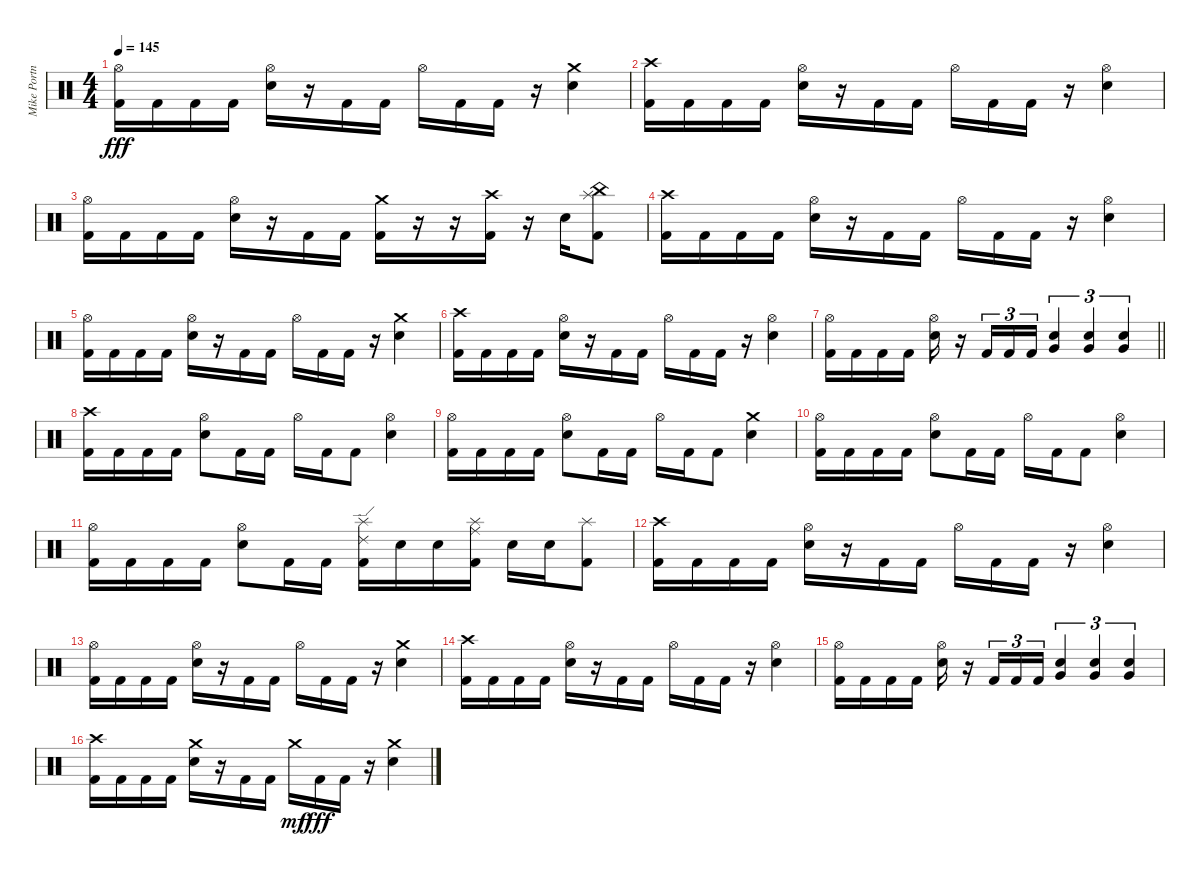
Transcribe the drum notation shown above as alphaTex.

\track ("Mike Portnoy" "Mike Portn") {instrument percussion}
\staff {score}
\articulation defaults
\ts (4 4)
\tempo 145
\clef neutral
\ks c
("Hi-Hat (open)" "Kick (hit) 2").16{dy fff} "Kick (hit) 2".16 "Kick (hit) 2".16 "Kick (hit) 2".16 ("Hi-Hat (open)" "Electric Snare (hit)").16 r.16 "Kick (hit) 2".16 "Kick (hit) 2".16 "Hi-Hat (open)".16 "Kick (hit) 2".16 "Kick (hit) 2".16 r.16 ("Crash medium (hit)" "Electric Snare (hit)").4 |
("Crash high (hit)" "Kick (hit) 2").16 "Kick (hit) 2".16 "Kick (hit) 2".16 "Kick (hit) 2".16 ("Hi-Hat (open)" "Electric Snare (hit)").16 r.16 "Kick (hit) 2".16 "Kick (hit) 2".16 "Hi-Hat (open)".16 "Kick (hit) 2".16 "Kick (hit) 2".16 r.16 ("Hi-Hat (open)" "Electric Snare (hit)").4 |
("Hi-Hat (open)" "Kick (hit) 2").16 "Kick (hit) 2".16 "Kick (hit) 2".16 "Kick (hit) 2".16 ("Hi-Hat (open)" "Electric Snare (hit)").16 r.16 "Kick (hit) 2".16 "Kick (hit) 2".16 ("Crash medium (hit)" "Kick (hit) 2").16 r.16 r.16 ("Crash high (hit)" "Kick (hit) 2").16 r.16 "Electric Snare (hit)".16 ("China (hit)" "Splash (hit)" "Kick (hit) 2").8 |
("Crash high (hit)" "Kick (hit) 2").16 "Kick (hit) 2".16 "Kick (hit) 2".16 "Kick (hit) 2".16 ("Hi-Hat (open)" "Electric Snare (hit)").16 r.16 "Kick (hit) 2".16 "Kick (hit) 2".16 "Hi-Hat (open)".16 "Kick (hit) 2".16 "Kick (hit) 2".16 r.16 ("Hi-Hat (open)" "Electric Snare (hit)").4 |
("Hi-Hat (open)" "Kick (hit) 2").16 "Kick (hit) 2".16 "Kick (hit) 2".16 "Kick (hit) 2".16 ("Hi-Hat (open)" "Electric Snare (hit)").16 r.16 "Kick (hit) 2".16 "Kick (hit) 2".16 "Hi-Hat (open)".16 "Kick (hit) 2".16 "Kick (hit) 2".16 r.16 ("Crash medium (hit)" "Electric Snare (hit)").4 |
("Crash high (hit)" "Kick (hit) 2").16 "Kick (hit) 2".16 "Kick (hit) 2".16 "Kick (hit) 2".16 ("Hi-Hat (open)" "Electric Snare (hit)").16 r.16 "Kick (hit) 2".16 "Kick (hit) 2".16 "Hi-Hat (open)".16 "Kick (hit) 2".16 "Kick (hit) 2".16 r.16 ("Hi-Hat (open)" "Electric Snare (hit)").4 |
\barLineRight lightlight
("Hi-Hat (open)" "Kick (hit) 2").16 "Kick (hit) 2".16 "Kick (hit) 2".16 "Kick (hit) 2".16 ("Hi-Hat (open)" "Electric Snare (hit)").16 r.16 "Kick (hit) 2".16{tu (3 2)} "Kick (hit) 2".16{tu (3 2)} "Kick (hit) 2".16{tu (3 2)} ("Very Low Tom (hit)" "Electric Snare (hit)").4{tu (3 2) bd 480} ("Very Low Tom (hit)" "Electric Snare (hit)").4{tu (3 2) bd 480} ("Very Low Tom (hit)" "Electric Snare (hit)").4{tu (3 2) bd 480} |
("Crash high (hit)" "Kick (hit) 2").16 "Kick (hit) 2".16 "Kick (hit) 2".16 "Kick (hit) 2".16 ("Hi-Hat (open)" "Electric Snare (hit)").8 "Kick (hit) 2".16 "Kick (hit) 2".16 "Hi-Hat (open)".16 "Kick (hit) 2".16 "Kick (hit) 2".8 ("Hi-Hat (open)" "Electric Snare (hit)").4 |
("Hi-Hat (open)" "Kick (hit) 2").16 "Kick (hit) 2".16 "Kick (hit) 2".16 "Kick (hit) 2".16 ("Hi-Hat (open)" "Electric Snare (hit)").8 "Kick (hit) 2".16 "Kick (hit) 2".16 "Hi-Hat (open)".16 "Kick (hit) 2".16 "Kick (hit) 2".8 ("Crash medium (hit)" "Electric Snare (hit)").4 |
("Hi-Hat (open)" "Kick (hit) 2").16 "Kick (hit) 2".16 "Kick (hit) 2".16 "Kick (hit) 2".16 ("Hi-Hat (open)" "Electric Snare (hit)").8 "Kick (hit) 2".16 "Kick (hit) 2".16 "Hi-Hat (open)".16 "Kick (hit) 2".16 "Kick (hit) 2".8 ("Hi-Hat (open)" "Electric Snare (hit)").4 |
("Hi-Hat (open)" "Kick (hit) 2").16 "Kick (hit) 2".16 "Kick (hit) 2".16 "Kick (hit) 2".16 ("Hi-Hat (open)" "Electric Snare (hit)").8 "Kick (hit) 2".16 "Kick (hit) 2".16 ("Splash (hit)" "Ride (edge) 2" "Kick (hit) 2").16 "Electric Snare (hit)".16 "Electric Snare (hit)".16 ("Splash (hit)" "Ride (middle)" "Kick (hit) 2").16 "Electric Snare (hit)".16 "Electric Snare (hit)".16 ("Splash (hit)" "Kick (hit) 2").8 |
("Crash high (hit)" "Kick (hit) 2").16 "Kick (hit) 2".16 "Kick (hit) 2".16 "Kick (hit) 2".16 ("Hi-Hat (open)" "Electric Snare (hit)").16 r.16 "Kick (hit) 2".16 "Kick (hit) 2".16 "Hi-Hat (open)".16 "Kick (hit) 2".16 "Kick (hit) 2".16 r.16 ("Hi-Hat (open)" "Electric Snare (hit)").4 |
("Hi-Hat (open)" "Kick (hit) 2").16 "Kick (hit) 2".16 "Kick (hit) 2".16 "Kick (hit) 2".16 ("Hi-Hat (open)" "Electric Snare (hit)").16 r.16 "Kick (hit) 2".16 "Kick (hit) 2".16 "Hi-Hat (open)".16 "Kick (hit) 2".16 "Kick (hit) 2".16 r.16 ("Crash medium (hit)" "Electric Snare (hit)").4 |
("Crash high (hit)" "Kick (hit) 2").16 "Kick (hit) 2".16 "Kick (hit) 2".16 "Kick (hit) 2".16 ("Hi-Hat (open)" "Electric Snare (hit)").16 r.16 "Kick (hit) 2".16 "Kick (hit) 2".16 "Hi-Hat (open)".16 "Kick (hit) 2".16 "Kick (hit) 2".16 r.16 ("Hi-Hat (open)" "Electric Snare (hit)").4 |
("Hi-Hat (open)" "Kick (hit) 2").16 "Kick (hit) 2".16 "Kick (hit) 2".16 "Kick (hit) 2".16 ("Hi-Hat (open)" "Electric Snare (hit)").16 r.16 "Kick (hit) 2".16{tu (3 2)} "Kick (hit) 2".16{tu (3 2)} "Kick (hit) 2".16{tu (3 2)} ("Very Low Tom (hit)" "Electric Snare (hit)").4{tu (3 2) bd 480} ("Very Low Tom (hit)" "Electric Snare (hit)").4{tu (3 2) bd 480} ("Very Low Tom (hit)" "Electric Snare (hit)").4{tu (3 2) bd 480} |
("Crash high (hit)" "Kick (hit) 2").16 "Kick (hit) 2".16 "Kick (hit) 2".16 "Kick (hit) 2".16 ("Crash medium (hit)" "Electric Snare (hit)").16 r.16 "Kick (hit) 2".16 "Kick (hit) 2".16 "Crash medium (hit)".16{dy mf} "Kick (hit) 2".16{dy fff} "Kick (hit) 2".16 r.16 ("Crash medium (hit)" "Electric Snare (hit)").4
